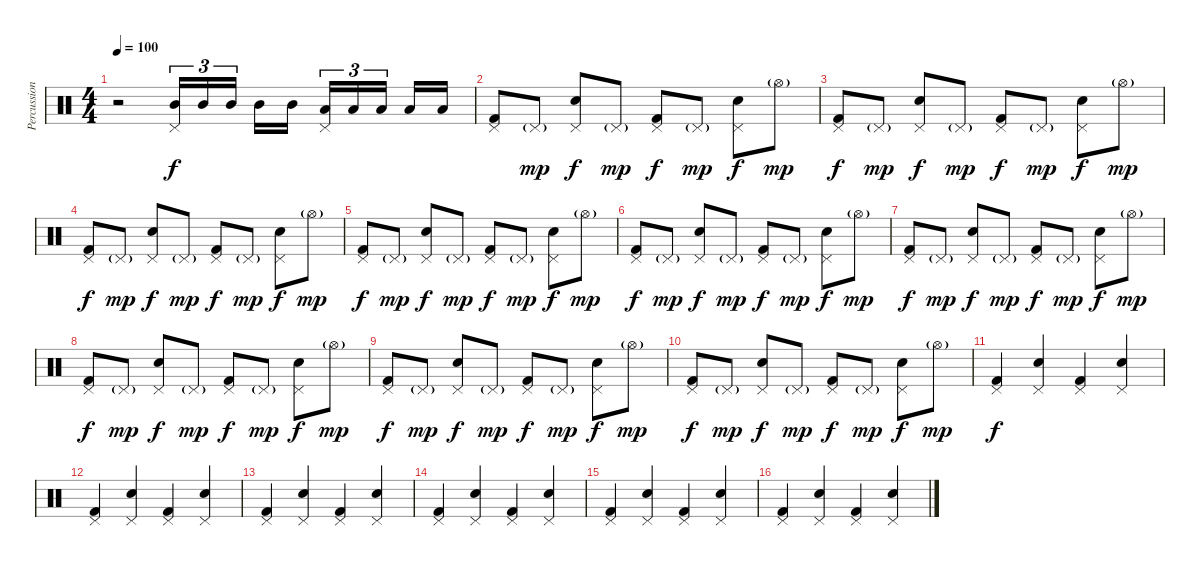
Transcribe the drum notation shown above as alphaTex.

\track ("Percussion" "Percussion") {instrument percussion}
\staff {score}
\articulation defaults
\ts (4 4)
\tempo 100
\clef neutral
\ks c
r.2{dy f} ("Mid Tom (hit)" "Pedal Hi-Hat (hit)").16{tu (3 2)} "Mid Tom (hit)".16{tu (3 2)} "Mid Tom (hit)".16{tu (3 2)} "Mid Tom (hit)".16 "Mid Tom (hit)".16 ("Low Tom (hit)" "Pedal Hi-Hat (hit)").16{tu (3 2)} "Low Tom (hit)".16{tu (3 2)} "Low Tom (hit)".16{tu (3 2)} "Low Tom (hit)".16 "Low Tom (hit)".16 |
("Pedal Hi-Hat (hit)" "Kick (hit) 2").8 "Pedal Hi-Hat (hit)"{g}.8{dy mp} ("Pedal Hi-Hat (hit)" "Electric Snare (hit)").8{dy f} "Pedal Hi-Hat (hit)"{g}.8{dy mp} ("Pedal Hi-Hat (hit)" "Kick (hit) 2").8{dy f} "Pedal Hi-Hat (hit)"{g}.8{dy mp} ("Pedal Hi-Hat (hit)" "Electric Snare (hit)").8{dy f} "Hi-Hat (open)"{g}.8{dy mp} |
("Pedal Hi-Hat (hit)" "Kick (hit) 2").8{dy f} "Pedal Hi-Hat (hit)"{g}.8{dy mp} ("Pedal Hi-Hat (hit)" "Electric Snare (hit)").8{dy f} "Pedal Hi-Hat (hit)"{g}.8{dy mp} ("Pedal Hi-Hat (hit)" "Kick (hit) 2").8{dy f} "Pedal Hi-Hat (hit)"{g}.8{dy mp} ("Pedal Hi-Hat (hit)" "Electric Snare (hit)").8{dy f} "Hi-Hat (open)"{g}.8{dy mp} |
("Pedal Hi-Hat (hit)" "Kick (hit) 2").8{dy f} "Pedal Hi-Hat (hit)"{g}.8{dy mp} ("Pedal Hi-Hat (hit)" "Electric Snare (hit)").8{dy f} "Pedal Hi-Hat (hit)"{g}.8{dy mp} ("Pedal Hi-Hat (hit)" "Kick (hit) 2").8{dy f} "Pedal Hi-Hat (hit)"{g}.8{dy mp} ("Pedal Hi-Hat (hit)" "Electric Snare (hit)").8{dy f} "Hi-Hat (open)"{g}.8{dy mp} |
("Pedal Hi-Hat (hit)" "Kick (hit) 2").8{dy f} "Pedal Hi-Hat (hit)"{g}.8{dy mp} ("Pedal Hi-Hat (hit)" "Electric Snare (hit)").8{dy f} "Pedal Hi-Hat (hit)"{g}.8{dy mp} ("Pedal Hi-Hat (hit)" "Kick (hit) 2").8{dy f} "Pedal Hi-Hat (hit)"{g}.8{dy mp} ("Pedal Hi-Hat (hit)" "Electric Snare (hit)").8{dy f} "Hi-Hat (open)"{g}.8{dy mp} |
("Pedal Hi-Hat (hit)" "Kick (hit) 2").8{dy f} "Pedal Hi-Hat (hit)"{g}.8{dy mp} ("Pedal Hi-Hat (hit)" "Electric Snare (hit)").8{dy f} "Pedal Hi-Hat (hit)"{g}.8{dy mp} ("Pedal Hi-Hat (hit)" "Kick (hit) 2").8{dy f} "Pedal Hi-Hat (hit)"{g}.8{dy mp} ("Pedal Hi-Hat (hit)" "Electric Snare (hit)").8{dy f} "Hi-Hat (open)"{g}.8{dy mp} |
("Pedal Hi-Hat (hit)" "Kick (hit) 2").8{dy f} "Pedal Hi-Hat (hit)"{g}.8{dy mp} ("Pedal Hi-Hat (hit)" "Electric Snare (hit)").8{dy f} "Pedal Hi-Hat (hit)"{g}.8{dy mp} ("Pedal Hi-Hat (hit)" "Kick (hit) 2").8{dy f} "Pedal Hi-Hat (hit)"{g}.8{dy mp} ("Pedal Hi-Hat (hit)" "Electric Snare (hit)").8{dy f} "Hi-Hat (open)"{g}.8{dy mp} |
("Pedal Hi-Hat (hit)" "Kick (hit) 2").8{dy f} "Pedal Hi-Hat (hit)"{g}.8{dy mp} ("Pedal Hi-Hat (hit)" "Electric Snare (hit)").8{dy f} "Pedal Hi-Hat (hit)"{g}.8{dy mp} ("Pedal Hi-Hat (hit)" "Kick (hit) 2").8{dy f} "Pedal Hi-Hat (hit)"{g}.8{dy mp} ("Pedal Hi-Hat (hit)" "Electric Snare (hit)").8{dy f} "Hi-Hat (open)"{g}.8{dy mp} |
("Pedal Hi-Hat (hit)" "Kick (hit) 2").8{dy f} "Pedal Hi-Hat (hit)"{g}.8{dy mp} ("Pedal Hi-Hat (hit)" "Electric Snare (hit)").8{dy f} "Pedal Hi-Hat (hit)"{g}.8{dy mp} ("Pedal Hi-Hat (hit)" "Kick (hit) 2").8{dy f} "Pedal Hi-Hat (hit)"{g}.8{dy mp} ("Pedal Hi-Hat (hit)" "Electric Snare (hit)").8{dy f} "Hi-Hat (open)"{g}.8{dy mp} |
("Pedal Hi-Hat (hit)" "Kick (hit) 2").8{dy f} "Pedal Hi-Hat (hit)"{g}.8{dy mp} ("Pedal Hi-Hat (hit)" "Electric Snare (hit)").8{dy f} "Pedal Hi-Hat (hit)"{g}.8{dy mp} ("Pedal Hi-Hat (hit)" "Kick (hit) 2").8{dy f} "Pedal Hi-Hat (hit)"{g}.8{dy mp} ("Pedal Hi-Hat (hit)" "Electric Snare (hit)").8{dy f} "Hi-Hat (open)"{g}.8{dy mp} |
("Pedal Hi-Hat (hit)" "Kick (hit) 2").4{dy f} ("Pedal Hi-Hat (hit)" "Electric Snare (hit)").4 ("Pedal Hi-Hat (hit)" "Kick (hit) 2").4 ("Pedal Hi-Hat (hit)" "Electric Snare (hit)").4 |
("Pedal Hi-Hat (hit)" "Kick (hit) 2").4 ("Pedal Hi-Hat (hit)" "Electric Snare (hit)").4 ("Pedal Hi-Hat (hit)" "Kick (hit) 2").4 ("Pedal Hi-Hat (hit)" "Electric Snare (hit)").4 |
("Pedal Hi-Hat (hit)" "Kick (hit) 2").4 ("Pedal Hi-Hat (hit)" "Electric Snare (hit)").4 ("Pedal Hi-Hat (hit)" "Kick (hit) 2").4 ("Pedal Hi-Hat (hit)" "Electric Snare (hit)").4 |
("Pedal Hi-Hat (hit)" "Kick (hit) 2").4 ("Pedal Hi-Hat (hit)" "Electric Snare (hit)").4 ("Pedal Hi-Hat (hit)" "Kick (hit) 2").4 ("Pedal Hi-Hat (hit)" "Electric Snare (hit)").4 |
("Pedal Hi-Hat (hit)" "Kick (hit) 2").4 ("Pedal Hi-Hat (hit)" "Electric Snare (hit)").4 ("Pedal Hi-Hat (hit)" "Kick (hit) 2").4 ("Pedal Hi-Hat (hit)" "Electric Snare (hit)").4 |
("Pedal Hi-Hat (hit)" "Kick (hit) 2").4 ("Pedal Hi-Hat (hit)" "Electric Snare (hit)").4 ("Pedal Hi-Hat (hit)" "Kick (hit) 2").4 ("Pedal Hi-Hat (hit)" "Electric Snare (hit)").4
